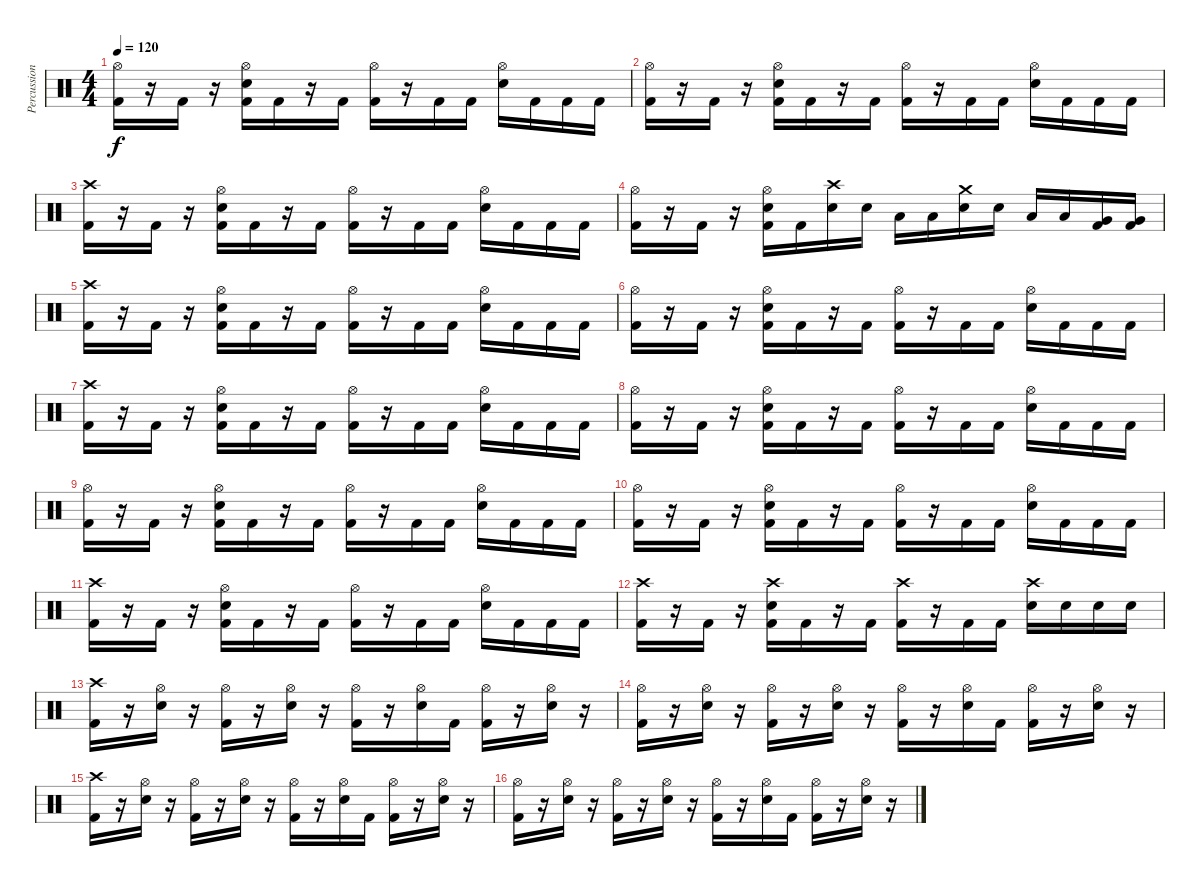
\track ("Percussion" "Percussion") {instrument percussion}
\staff {score}
\articulation defaults
\ts (4 4)
\tempo 120
\clef neutral
\ks c
("Hi-Hat (open)" "Kick (hit) 2").16{dy f} r.16 "Kick (hit) 2".16 r.16 ("Hi-Hat (open)" "Electric Snare (hit)" "Kick (hit) 2").16 "Kick (hit) 2".16 r.16 "Kick (hit) 2".16 ("Hi-Hat (open)" "Kick (hit) 2").16 r.16 "Kick (hit) 2".16 "Kick (hit) 2".16 ("Hi-Hat (open)" "Electric Snare (hit)").16 "Kick (hit) 2".16 "Kick (hit) 2".16 "Kick (hit) 2".16 |
("Hi-Hat (open)" "Kick (hit) 2").16 r.16 "Kick (hit) 2".16 r.16 ("Hi-Hat (open)" "Electric Snare (hit)" "Kick (hit) 2").16 "Kick (hit) 2".16 r.16 "Kick (hit) 2".16 ("Hi-Hat (open)" "Kick (hit) 2").16 r.16 "Kick (hit) 2".16 "Kick (hit) 2".16 ("Hi-Hat (open)" "Electric Snare (hit)").16 "Kick (hit) 2".16 "Kick (hit) 2".16 "Kick (hit) 2".16 |
("Crash high (hit)" "Kick (hit) 2").16 r.16 "Kick (hit) 2".16 r.16 ("Hi-Hat (open)" "Electric Snare (hit)" "Kick (hit) 2").16 "Kick (hit) 2".16 r.16 "Kick (hit) 2".16 ("Hi-Hat (open)" "Kick (hit) 2").16 r.16 "Kick (hit) 2".16 "Kick (hit) 2".16 ("Hi-Hat (open)" "Electric Snare (hit)").16 "Kick (hit) 2".16 "Kick (hit) 2".16 "Kick (hit) 2".16 |
("Hi-Hat (open)" "Kick (hit) 2").16 r.16 "Kick (hit) 2".16 r.16 ("Hi-Hat (open)" "Electric Snare (hit)" "Kick (hit) 2").16 "Kick (hit) 2".16 ("Crash high (hit)" "Electric Snare (hit)").16 "Electric Snare (hit)".16 "Low Tom (hit)".16 "Low Tom (hit)".16 ("Crash medium (hit)" "Electric Snare (hit)").16 "Electric Snare (hit)".16 "Low Tom (hit)".16 "Low Tom (hit)".16 ("Very Low Tom (hit)" "Kick (hit) 2").16 ("Very Low Tom (hit)" "Kick (hit) 2").16 |
("Crash high (hit)" "Kick (hit) 2").16 r.16 "Kick (hit) 2".16 r.16 ("Hi-Hat (open)" "Electric Snare (hit)" "Kick (hit) 2").16 "Kick (hit) 2".16 r.16 "Kick (hit) 2".16 ("Hi-Hat (open)" "Kick (hit) 2").16 r.16 "Kick (hit) 2".16 "Kick (hit) 2".16 ("Hi-Hat (open)" "Electric Snare (hit)").16 "Kick (hit) 2".16 "Kick (hit) 2".16 "Kick (hit) 2".16 |
("Hi-Hat (open)" "Kick (hit) 2").16 r.16 "Kick (hit) 2".16 r.16 ("Hi-Hat (open)" "Electric Snare (hit)" "Kick (hit) 2").16 "Kick (hit) 2".16 r.16 "Kick (hit) 2".16 ("Hi-Hat (open)" "Kick (hit) 2").16 r.16 "Kick (hit) 2".16 "Kick (hit) 2".16 ("Hi-Hat (open)" "Electric Snare (hit)").16 "Kick (hit) 2".16 "Kick (hit) 2".16 "Kick (hit) 2".16 |
("Crash high (hit)" "Kick (hit) 2").16 r.16 "Kick (hit) 2".16 r.16 ("Hi-Hat (open)" "Electric Snare (hit)" "Kick (hit) 2").16 "Kick (hit) 2".16 r.16 "Kick (hit) 2".16 ("Hi-Hat (open)" "Kick (hit) 2").16 r.16 "Kick (hit) 2".16 "Kick (hit) 2".16 ("Hi-Hat (open)" "Electric Snare (hit)").16 "Kick (hit) 2".16 "Kick (hit) 2".16 "Kick (hit) 2".16 |
("Hi-Hat (open)" "Kick (hit) 2").16 r.16 "Kick (hit) 2".16 r.16 ("Hi-Hat (open)" "Electric Snare (hit)" "Kick (hit) 2").16 "Kick (hit) 2".16 r.16 "Kick (hit) 2".16 ("Hi-Hat (open)" "Kick (hit) 2").16 r.16 "Kick (hit) 2".16 "Kick (hit) 2".16 ("Hi-Hat (open)" "Electric Snare (hit)").16 "Kick (hit) 2".16 "Kick (hit) 2".16 "Kick (hit) 2".16 |
("Hi-Hat (open)" "Kick (hit) 2").16 r.16 "Kick (hit) 2".16 r.16 ("Hi-Hat (open)" "Electric Snare (hit)" "Kick (hit) 2").16 "Kick (hit) 2".16 r.16 "Kick (hit) 2".16 ("Hi-Hat (open)" "Kick (hit) 2").16 r.16 "Kick (hit) 2".16 "Kick (hit) 2".16 ("Hi-Hat (open)" "Electric Snare (hit)").16 "Kick (hit) 2".16 "Kick (hit) 2".16 "Kick (hit) 2".16 |
("Hi-Hat (open)" "Kick (hit) 2").16 r.16 "Kick (hit) 2".16 r.16 ("Hi-Hat (open)" "Electric Snare (hit)" "Kick (hit) 2").16 "Kick (hit) 2".16 r.16 "Kick (hit) 2".16 ("Hi-Hat (open)" "Kick (hit) 2").16 r.16 "Kick (hit) 2".16 "Kick (hit) 2".16 ("Hi-Hat (open)" "Electric Snare (hit)").16 "Kick (hit) 2".16 "Kick (hit) 2".16 "Kick (hit) 2".16 |
("Crash high (hit)" "Kick (hit) 2").16 r.16 "Kick (hit) 2".16 r.16 ("Hi-Hat (open)" "Electric Snare (hit)" "Kick (hit) 2").16 "Kick (hit) 2".16 r.16 "Kick (hit) 2".16 ("Hi-Hat (open)" "Kick (hit) 2").16 r.16 "Kick (hit) 2".16 "Kick (hit) 2".16 ("Hi-Hat (open)" "Electric Snare (hit)").16 "Kick (hit) 2".16 "Kick (hit) 2".16 "Kick (hit) 2".16 |
("Crash high (hit)" "Kick (hit) 2").16 r.16 "Kick (hit) 2".16 r.16 ("Crash high (hit)" "Electric Snare (hit)" "Kick (hit) 2").16 "Kick (hit) 2".16 r.16 "Kick (hit) 2".16 ("Crash high (hit)" "Kick (hit) 2").16 r.16 "Kick (hit) 2".16 "Kick (hit) 2".16 ("Crash high (hit)" "Electric Snare (hit)").16 "Electric Snare (hit)".16 "Electric Snare (hit)".16 "Electric Snare (hit)".16 |
("Crash high (hit)" "Kick (hit) 2").16 r.16 ("Hi-Hat (open)" "Electric Snare (hit)").16 r.16 ("Hi-Hat (open)" "Kick (hit) 2").16 r.16 ("Hi-Hat (open)" "Electric Snare (hit)").16 r.16 ("Hi-Hat (open)" "Kick (hit) 2").16 r.16 ("Hi-Hat (open)" "Electric Snare (hit)").16 "Kick (hit) 2".16 ("Hi-Hat (open)" "Kick (hit) 2").16 r.16 ("Hi-Hat (open)" "Electric Snare (hit)").16 r.16 |
("Hi-Hat (open)" "Kick (hit) 2").16 r.16 ("Hi-Hat (open)" "Electric Snare (hit)").16 r.16 ("Hi-Hat (open)" "Kick (hit) 2").16 r.16 ("Hi-Hat (open)" "Electric Snare (hit)").16 r.16 ("Hi-Hat (open)" "Kick (hit) 2").16 r.16 ("Hi-Hat (open)" "Electric Snare (hit)").16 "Kick (hit) 2".16 ("Hi-Hat (open)" "Kick (hit) 2").16 r.16 ("Hi-Hat (open)" "Electric Snare (hit)").16 r.16 |
("Crash high (hit)" "Kick (hit) 2").16 r.16 ("Hi-Hat (open)" "Electric Snare (hit)").16 r.16 ("Hi-Hat (open)" "Kick (hit) 2").16 r.16 ("Hi-Hat (open)" "Electric Snare (hit)").16 r.16 ("Hi-Hat (open)" "Kick (hit) 2").16 r.16 ("Hi-Hat (open)" "Electric Snare (hit)").16 "Kick (hit) 2".16 ("Hi-Hat (open)" "Kick (hit) 2").16 r.16 ("Hi-Hat (open)" "Electric Snare (hit)").16 r.16 |
("Hi-Hat (open)" "Kick (hit) 2").16 r.16 ("Hi-Hat (open)" "Electric Snare (hit)").16 r.16 ("Hi-Hat (open)" "Kick (hit) 2").16 r.16 ("Hi-Hat (open)" "Electric Snare (hit)").16 r.16 ("Hi-Hat (open)" "Kick (hit) 2").16 r.16 ("Hi-Hat (open)" "Electric Snare (hit)").16 "Kick (hit) 2".16 ("Hi-Hat (open)" "Kick (hit) 2").16 r.16 ("Hi-Hat (open)" "Electric Snare (hit)").16 r.16
